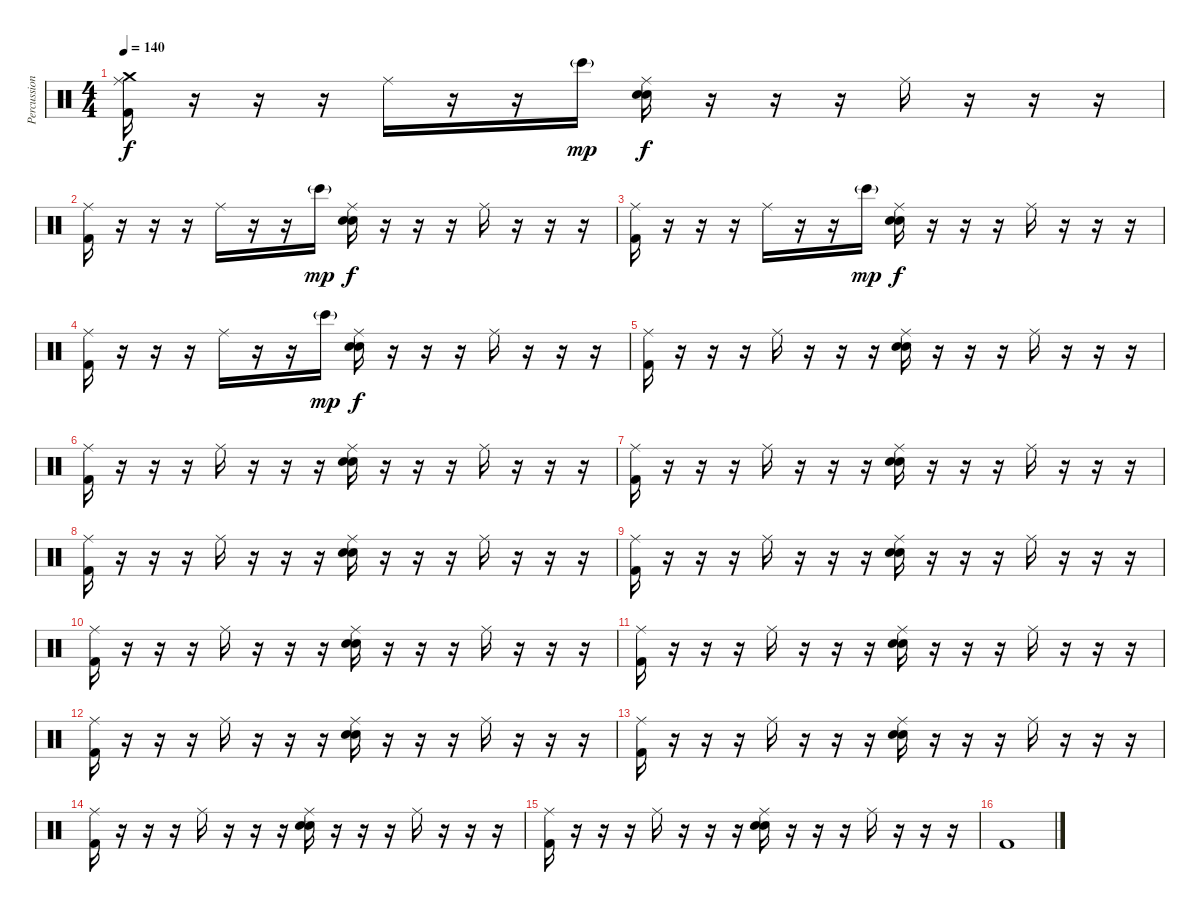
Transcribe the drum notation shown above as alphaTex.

\track ("Percussion" "Percussion") {instrument percussion}
\staff {score}
\articulation defaults
\ts (4 4)
\tempo 140
\clef neutral
\ks c
("Crash medium (hit)" "Ride (middle)" "Kick (hit) 2").16{dy f} r.16 r.16 r.16 "Ride (middle)".16 r.16 r.16 "Bongo High (hit)"{g}.16{dy mp} ("Ride (middle)" "Hand Clap (hit)" "Snare (hit) 2").16{dy f} r.16 r.16 r.16 "Ride (middle)".16 r.16 r.16 r.16 |
("Ride (middle)" "Kick (hit) 2").16 r.16 r.16 r.16 "Ride (middle)".16 r.16 r.16 "Bongo High (hit)"{g}.16{dy mp} ("Ride (middle)" "Hand Clap (hit)" "Snare (hit) 2").16{dy f} r.16 r.16 r.16 "Ride (middle)".16 r.16 r.16 r.16 |
("Ride (middle)" "Kick (hit) 2").16 r.16 r.16 r.16 "Ride (middle)".16 r.16 r.16 "Bongo High (hit)"{g}.16{dy mp} ("Ride (middle)" "Hand Clap (hit)" "Snare (hit) 2").16{dy f} r.16 r.16 r.16 "Ride (middle)".16 r.16 r.16 r.16 |
("Ride (middle)" "Kick (hit) 2").16 r.16 r.16 r.16 "Ride (middle)".16 r.16 r.16 "Bongo High (hit)"{g}.16{dy mp} ("Ride (middle)" "Hand Clap (hit)" "Snare (hit) 2").16{dy f} r.16 r.16 r.16 "Ride (middle)".16 r.16 r.16 r.16 |
("Ride (middle)" "Kick (hit) 2").16 r.16 r.16 r.16 "Ride (middle)".16 r.16 r.16 r.16 ("Ride (middle)" "Hand Clap (hit)" "Snare (hit) 2").16 r.16 r.16 r.16 "Ride (middle)".16 r.16 r.16 r.16 |
("Ride (middle)" "Kick (hit) 2").16 r.16 r.16 r.16 "Ride (middle)".16 r.16 r.16 r.16 ("Ride (middle)" "Hand Clap (hit)" "Snare (hit) 2").16 r.16 r.16 r.16 "Ride (middle)".16 r.16 r.16 r.16 |
("Ride (middle)" "Kick (hit) 2").16 r.16 r.16 r.16 "Ride (middle)".16 r.16 r.16 r.16 ("Ride (middle)" "Hand Clap (hit)" "Snare (hit) 2").16 r.16 r.16 r.16 "Ride (middle)".16 r.16 r.16 r.16 |
("Ride (middle)" "Kick (hit) 2").16 r.16 r.16 r.16 "Ride (middle)".16 r.16 r.16 r.16 ("Ride (middle)" "Hand Clap (hit)" "Snare (hit) 2").16 r.16 r.16 r.16 "Ride (middle)".16 r.16 r.16 r.16 |
("Ride (middle)" "Kick (hit) 2").16 r.16 r.16 r.16 "Ride (middle)".16 r.16 r.16 r.16 ("Ride (middle)" "Hand Clap (hit)" "Snare (hit) 2").16 r.16 r.16 r.16 "Ride (middle)".16 r.16 r.16 r.16 |
("Ride (middle)" "Kick (hit) 2").16 r.16 r.16 r.16 "Ride (middle)".16 r.16 r.16 r.16 ("Ride (middle)" "Hand Clap (hit)" "Snare (hit) 2").16 r.16 r.16 r.16 "Ride (middle)".16 r.16 r.16 r.16 |
("Ride (middle)" "Kick (hit) 2").16 r.16 r.16 r.16 "Ride (middle)".16 r.16 r.16 r.16 ("Ride (middle)" "Hand Clap (hit)" "Snare (hit) 2").16 r.16 r.16 r.16 "Ride (middle)".16 r.16 r.16 r.16 |
("Ride (middle)" "Kick (hit) 2").16 r.16 r.16 r.16 "Ride (middle)".16 r.16 r.16 r.16 ("Ride (middle)" "Hand Clap (hit)" "Snare (hit) 2").16 r.16 r.16 r.16 "Ride (middle)".16 r.16 r.16 r.16 |
("Ride (middle)" "Kick (hit) 2").16 r.16 r.16 r.16 "Ride (middle)".16 r.16 r.16 r.16 ("Ride (middle)" "Hand Clap (hit)" "Snare (hit) 2").16 r.16 r.16 r.16 "Ride (middle)".16 r.16 r.16 r.16 |
("Ride (middle)" "Kick (hit) 2").16 r.16 r.16 r.16 "Ride (middle)".16 r.16 r.16 r.16 ("Ride (middle)" "Hand Clap (hit)" "Snare (hit) 2").16 r.16 r.16 r.16 "Ride (middle)".16 r.16 r.16 r.16 |
("Ride (middle)" "Kick (hit) 2").16 r.16 r.16 r.16 "Ride (middle)".16 r.16 r.16 r.16 ("Ride (middle)" "Hand Clap (hit)" "Snare (hit) 2").16 r.16 r.16 r.16 "Ride (middle)".16 r.16 r.16 r.16 |
"Kick (hit) 2".1
